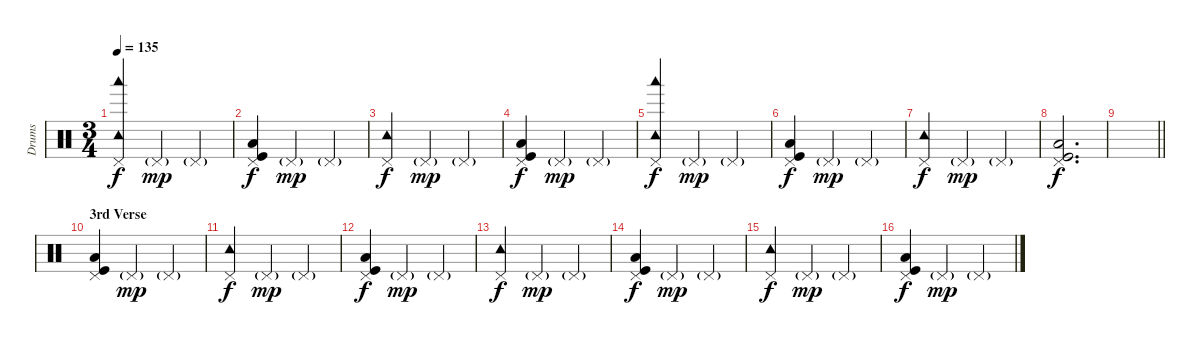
\track ("Drums" "Drums") {instrument percussion}
\staff {score}
\articulation defaults
\ts (3 4)
\tempo 135
\clef neutral
\ks c
("Pedal Hi-Hat (hit)" "Woodblock low (hit)" "Tambourine (hit)").4{dy f} "Pedal Hi-Hat (hit)"{g}.4{dy mp} "Pedal Hi-Hat (hit)"{g}.4 |
("Pedal Hi-Hat (hit)" "Low Floor Tom (hit)" "Kick (hit)").4{dy f} "Pedal Hi-Hat (hit)"{g}.4{dy mp} "Pedal Hi-Hat (hit)"{g}.4 |
("Pedal Hi-Hat (hit)" "Tambourine (hit)").4{dy f} "Pedal Hi-Hat (hit)"{g}.4{dy mp} "Pedal Hi-Hat (hit)"{g}.4 |
("Pedal Hi-Hat (hit)" "Low Floor Tom (hit)" "Kick (hit)").4{dy f} "Pedal Hi-Hat (hit)"{g}.4{dy mp} "Pedal Hi-Hat (hit)"{g}.4 |
("Pedal Hi-Hat (hit)" "Woodblock low (hit)" "Tambourine (hit)").4{dy f} "Pedal Hi-Hat (hit)"{g}.4{dy mp} "Pedal Hi-Hat (hit)"{g}.4 |
("Pedal Hi-Hat (hit)" "Low Floor Tom (hit)" "Kick (hit)").4{dy f} "Pedal Hi-Hat (hit)"{g}.4{dy mp} "Pedal Hi-Hat (hit)"{g}.4 |
("Pedal Hi-Hat (hit)" "Tambourine (hit)").4{dy f} "Pedal Hi-Hat (hit)"{g}.4{dy mp} "Pedal Hi-Hat (hit)"{g}.4 |
("Pedal Hi-Hat (hit)" "Low Floor Tom (hit)" "Kick (hit)").2{d dy f} |
\barLineRight lightlight
|
\section ("" "3rd Verse")
("Pedal Hi-Hat (hit)" "Low Floor Tom (hit)" "Kick (hit)").4 "Pedal Hi-Hat (hit)"{g}.4{dy mp} "Pedal Hi-Hat (hit)"{g}.4 |
("Pedal Hi-Hat (hit)" "Tambourine (hit)").4{dy f} "Pedal Hi-Hat (hit)"{g}.4{dy mp} "Pedal Hi-Hat (hit)"{g}.4 |
("Pedal Hi-Hat (hit)" "Low Floor Tom (hit)" "Kick (hit)").4{dy f} "Pedal Hi-Hat (hit)"{g}.4{dy mp} "Pedal Hi-Hat (hit)"{g}.4 |
("Pedal Hi-Hat (hit)" "Tambourine (hit)").4{dy f} "Pedal Hi-Hat (hit)"{g}.4{dy mp} "Pedal Hi-Hat (hit)"{g}.4 |
("Pedal Hi-Hat (hit)" "Low Floor Tom (hit)" "Kick (hit)").4{dy f} "Pedal Hi-Hat (hit)"{g}.4{dy mp} "Pedal Hi-Hat (hit)"{g}.4 |
("Pedal Hi-Hat (hit)" "Tambourine (hit)").4{dy f} "Pedal Hi-Hat (hit)"{g}.4{dy mp} "Pedal Hi-Hat (hit)"{g}.4 |
("Pedal Hi-Hat (hit)" "Low Floor Tom (hit)" "Kick (hit)").4{dy f} "Pedal Hi-Hat (hit)"{g}.4{dy mp} "Pedal Hi-Hat (hit)"{g}.4
